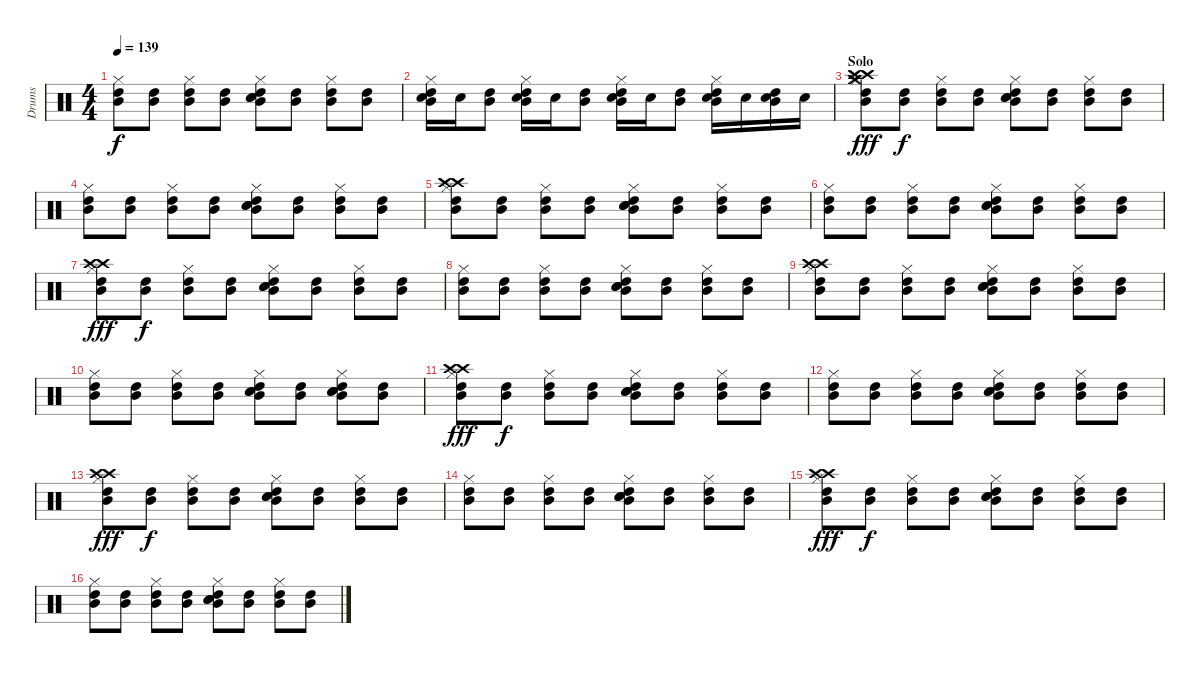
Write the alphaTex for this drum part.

\track ("Drums" "Drums") {instrument percussion}
\staff {score}
\articulation defaults
\ts (4 4)
\tempo 139
\clef neutral
\ks c
("Hi-Hat (closed)" "Mid Tom (hit)" "High Tom (hit)").8{dy f} ("Mid Tom (hit)" "High Tom (hit)").8 ("Hi-Hat (closed)" "Mid Tom (hit)" "High Tom (hit)").8 ("Mid Tom (hit)" "High Tom (hit)").8 ("Hi-Hat (closed)" "Mid Tom (hit)" "High Tom (hit)" "Electric Snare (hit)" "Electric Snare (hit)").8 ("Mid Tom (hit)" "High Tom (hit)").8 ("Hi-Hat (closed)" "Mid Tom (hit)" "High Tom (hit)").8 ("Mid Tom (hit)" "High Tom (hit)").8 |
("Hi-Hat (closed)" "Mid Tom (hit)" "High Tom (hit)" "Electric Snare (hit)").16 "Electric Snare (hit)".16 ("Mid Tom (hit)" "High Tom (hit)").8 ("Hi-Hat (closed)" "Mid Tom (hit)" "High Tom (hit)" "Electric Snare (hit)").16 "Electric Snare (hit)".16 ("Mid Tom (hit)" "High Tom (hit)").8 ("Hi-Hat (closed)" "Mid Tom (hit)" "High Tom (hit)" "Electric Snare (hit)").16 "Electric Snare (hit)".16 ("Mid Tom (hit)" "High Tom (hit)").8 ("Hi-Hat (closed)" "Mid Tom (hit)" "High Tom (hit)" "Electric Snare (hit)").16 "Electric Snare (hit)".16 ("Mid Tom (hit)" "High Tom (hit)" "Electric Snare (hit)").16 "Electric Snare (hit)".16 |
\section ("" "Solo")
("Hi-Hat (closed)" "Mid Tom (hit)" "High Tom (hit)" "Crash medium (hit)" "Crash high (hit)" "Crash high (hit)").8{dy fff} ("Mid Tom (hit)" "High Tom (hit)").8{dy f} ("Hi-Hat (closed)" "Mid Tom (hit)" "High Tom (hit)").8 ("Mid Tom (hit)" "High Tom (hit)").8 ("Hi-Hat (closed)" "Mid Tom (hit)" "High Tom (hit)" "Electric Snare (hit)" "Electric Snare (hit)").8 ("Mid Tom (hit)" "High Tom (hit)").8 ("Hi-Hat (closed)" "Mid Tom (hit)" "High Tom (hit)").8 ("Mid Tom (hit)" "High Tom (hit)").8 |
("Hi-Hat (closed)" "Mid Tom (hit)" "High Tom (hit)").8 ("Mid Tom (hit)" "High Tom (hit)").8 ("Hi-Hat (closed)" "Mid Tom (hit)" "High Tom (hit)").8 ("Mid Tom (hit)" "High Tom (hit)").8 ("Hi-Hat (closed)" "Mid Tom (hit)" "High Tom (hit)" "Electric Snare (hit)" "Electric Snare (hit)").8 ("Mid Tom (hit)" "High Tom (hit)").8 ("Hi-Hat (closed)" "Mid Tom (hit)" "High Tom (hit)").8 ("Mid Tom (hit)" "High Tom (hit)").8 |
("Hi-Hat (closed)" "Mid Tom (hit)" "High Tom (hit)" "Crash high (hit)" "Crash high (hit)").8 ("Mid Tom (hit)" "High Tom (hit)").8 ("Hi-Hat (closed)" "Mid Tom (hit)" "High Tom (hit)").8 ("Mid Tom (hit)" "High Tom (hit)").8 ("Hi-Hat (closed)" "Mid Tom (hit)" "High Tom (hit)" "Electric Snare (hit)" "Electric Snare (hit)").8 ("Mid Tom (hit)" "High Tom (hit)").8 ("Hi-Hat (closed)" "Mid Tom (hit)" "High Tom (hit)").8 ("Mid Tom (hit)" "High Tom (hit)").8 |
("Hi-Hat (closed)" "Mid Tom (hit)" "High Tom (hit)").8 ("Mid Tom (hit)" "High Tom (hit)").8 ("Hi-Hat (closed)" "Mid Tom (hit)" "High Tom (hit)").8 ("Mid Tom (hit)" "High Tom (hit)").8 ("Hi-Hat (closed)" "Mid Tom (hit)" "High Tom (hit)" "Electric Snare (hit)" "Electric Snare (hit)").8 ("Mid Tom (hit)" "High Tom (hit)").8 ("Hi-Hat (closed)" "Mid Tom (hit)" "High Tom (hit)").8 ("Mid Tom (hit)" "High Tom (hit)").8 |
("Hi-Hat (closed)" "Mid Tom (hit)" "High Tom (hit)" "Crash high (hit)" "Crash high (hit)").8{dy fff} ("Mid Tom (hit)" "High Tom (hit)").8{dy f} ("Hi-Hat (closed)" "Mid Tom (hit)" "High Tom (hit)").8 ("Mid Tom (hit)" "High Tom (hit)").8 ("Hi-Hat (closed)" "Mid Tom (hit)" "High Tom (hit)" "Electric Snare (hit)" "Electric Snare (hit)").8 ("Mid Tom (hit)" "High Tom (hit)").8 ("Hi-Hat (closed)" "Mid Tom (hit)" "High Tom (hit)").8 ("Mid Tom (hit)" "High Tom (hit)").8 |
("Hi-Hat (closed)" "Mid Tom (hit)" "High Tom (hit)").8 ("Mid Tom (hit)" "High Tom (hit)").8 ("Hi-Hat (closed)" "Mid Tom (hit)" "High Tom (hit)").8 ("Mid Tom (hit)" "High Tom (hit)").8 ("Hi-Hat (closed)" "Mid Tom (hit)" "High Tom (hit)" "Electric Snare (hit)" "Electric Snare (hit)").8 ("Mid Tom (hit)" "High Tom (hit)").8 ("Hi-Hat (closed)" "Mid Tom (hit)" "High Tom (hit)").8 ("Mid Tom (hit)" "High Tom (hit)").8 |
("Hi-Hat (closed)" "Mid Tom (hit)" "High Tom (hit)" "Crash high (hit)" "Crash high (hit)").8 ("Mid Tom (hit)" "High Tom (hit)").8 ("Hi-Hat (closed)" "Mid Tom (hit)" "High Tom (hit)").8 ("Mid Tom (hit)" "High Tom (hit)").8 ("Hi-Hat (closed)" "Mid Tom (hit)" "High Tom (hit)" "Electric Snare (hit)" "Electric Snare (hit)").8 ("Mid Tom (hit)" "High Tom (hit)").8 ("Hi-Hat (closed)" "Mid Tom (hit)" "High Tom (hit)").8 ("Mid Tom (hit)" "High Tom (hit)").8 |
("Hi-Hat (closed)" "Mid Tom (hit)" "High Tom (hit)").8 ("Mid Tom (hit)" "High Tom (hit)").8 ("Hi-Hat (closed)" "Mid Tom (hit)" "High Tom (hit)").8 ("Mid Tom (hit)" "High Tom (hit)").8 ("Hi-Hat (closed)" "Mid Tom (hit)" "High Tom (hit)" "Electric Snare (hit)" "Electric Snare (hit)").8 ("Mid Tom (hit)" "High Tom (hit)").8 ("Hi-Hat (closed)" "Mid Tom (hit)" "High Tom (hit)" "Electric Snare (hit)" "Electric Snare (hit)").8 ("Mid Tom (hit)" "High Tom (hit)").8 |
("Hi-Hat (closed)" "Mid Tom (hit)" "High Tom (hit)" "Crash high (hit)" "Crash high (hit)").8{dy fff} ("Mid Tom (hit)" "High Tom (hit)").8{dy f} ("Hi-Hat (closed)" "Mid Tom (hit)" "High Tom (hit)").8 ("Mid Tom (hit)" "High Tom (hit)").8 ("Hi-Hat (closed)" "Mid Tom (hit)" "High Tom (hit)" "Electric Snare (hit)" "Electric Snare (hit)").8 ("Mid Tom (hit)" "High Tom (hit)").8 ("Hi-Hat (closed)" "Mid Tom (hit)" "High Tom (hit)").8 ("Mid Tom (hit)" "High Tom (hit)").8 |
("Hi-Hat (closed)" "Mid Tom (hit)" "High Tom (hit)").8 ("Mid Tom (hit)" "High Tom (hit)").8 ("Hi-Hat (closed)" "Mid Tom (hit)" "High Tom (hit)").8 ("Mid Tom (hit)" "High Tom (hit)").8 ("Hi-Hat (closed)" "Mid Tom (hit)" "High Tom (hit)" "Electric Snare (hit)" "Electric Snare (hit)").8 ("Mid Tom (hit)" "High Tom (hit)").8 ("Hi-Hat (closed)" "Mid Tom (hit)" "High Tom (hit)").8 ("Mid Tom (hit)" "High Tom (hit)").8 |
("Hi-Hat (closed)" "Mid Tom (hit)" "High Tom (hit)" "Crash high (hit)" "Crash high (hit)").8{dy fff} ("Mid Tom (hit)" "High Tom (hit)").8{dy f} ("Hi-Hat (closed)" "Mid Tom (hit)" "High Tom (hit)").8 ("Mid Tom (hit)" "High Tom (hit)").8 ("Hi-Hat (closed)" "Mid Tom (hit)" "High Tom (hit)" "Electric Snare (hit)" "Electric Snare (hit)").8 ("Mid Tom (hit)" "High Tom (hit)").8 ("Hi-Hat (closed)" "Mid Tom (hit)" "High Tom (hit)").8 ("Mid Tom (hit)" "High Tom (hit)").8 |
("Hi-Hat (closed)" "Mid Tom (hit)" "High Tom (hit)").8 ("Mid Tom (hit)" "High Tom (hit)").8 ("Hi-Hat (closed)" "Mid Tom (hit)" "High Tom (hit)").8 ("Mid Tom (hit)" "High Tom (hit)").8 ("Hi-Hat (closed)" "Mid Tom (hit)" "High Tom (hit)" "Electric Snare (hit)" "Electric Snare (hit)").8 ("Mid Tom (hit)" "High Tom (hit)").8 ("Hi-Hat (closed)" "Mid Tom (hit)" "High Tom (hit)").8 ("Mid Tom (hit)" "High Tom (hit)").8 |
("Hi-Hat (closed)" "Mid Tom (hit)" "High Tom (hit)" "Crash high (hit)" "Crash high (hit)").8{dy fff} ("Mid Tom (hit)" "High Tom (hit)").8{dy f} ("Hi-Hat (closed)" "Mid Tom (hit)" "High Tom (hit)").8 ("Mid Tom (hit)" "High Tom (hit)").8 ("Hi-Hat (closed)" "Mid Tom (hit)" "High Tom (hit)" "Electric Snare (hit)" "Electric Snare (hit)").8 ("Mid Tom (hit)" "High Tom (hit)").8 ("Hi-Hat (closed)" "Mid Tom (hit)" "High Tom (hit)").8 ("Mid Tom (hit)" "High Tom (hit)").8 |
("Hi-Hat (closed)" "Mid Tom (hit)" "High Tom (hit)").8 ("Mid Tom (hit)" "High Tom (hit)").8 ("Hi-Hat (closed)" "Mid Tom (hit)" "High Tom (hit)").8 ("Mid Tom (hit)" "High Tom (hit)").8 ("Hi-Hat (closed)" "Mid Tom (hit)" "High Tom (hit)" "Electric Snare (hit)" "Electric Snare (hit)").8 ("Mid Tom (hit)" "High Tom (hit)").8 ("Hi-Hat (closed)" "Mid Tom (hit)" "High Tom (hit)").8 ("Mid Tom (hit)" "High Tom (hit)").8
